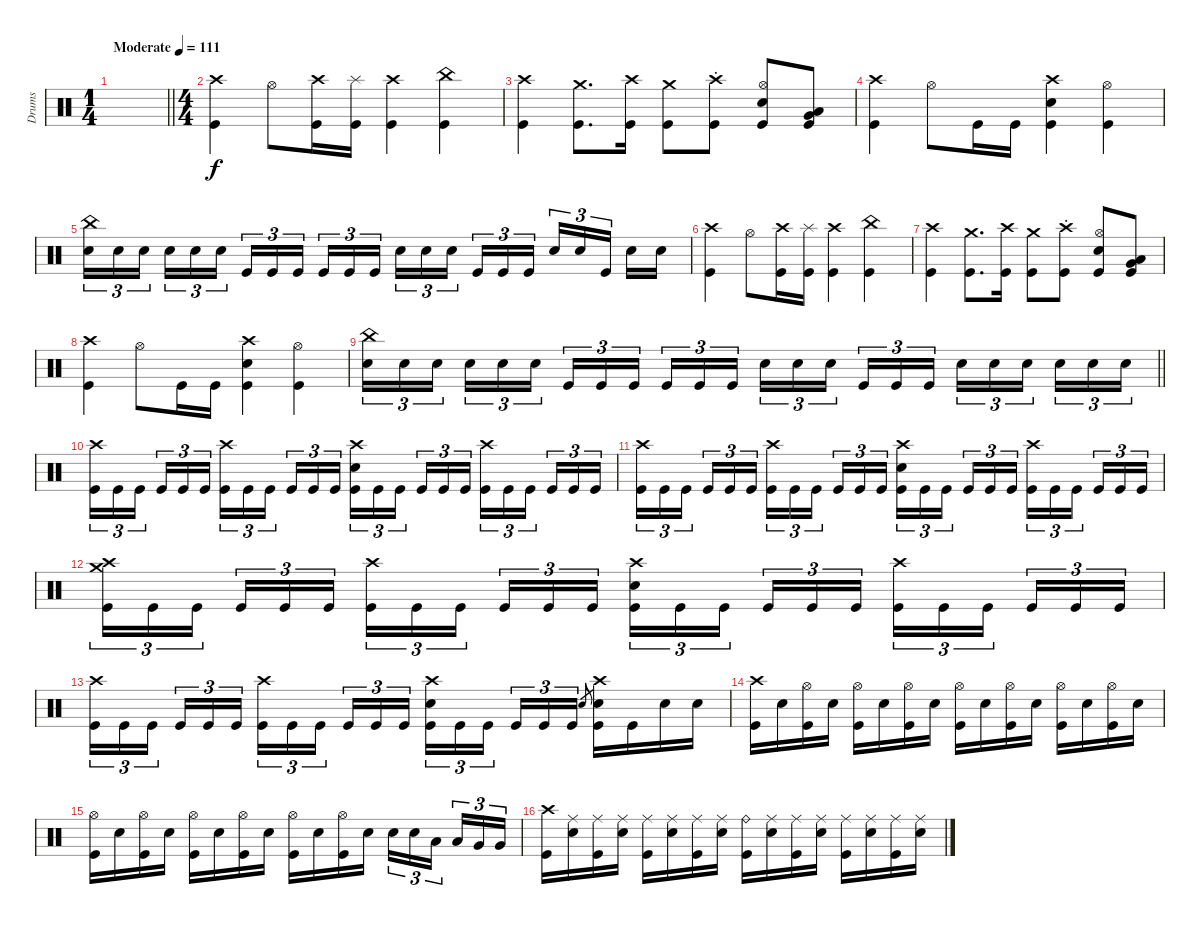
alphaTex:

\track ("Drums" "Drums") {instrument percussion}
\staff
\articulation defaults
\ts (1 4)
\tempo (111 "Moderate")
\clef neutral
\barLineRight lightlight
\ks c
|
\ts (4 4)
("Crash high (hit)" "Kick (hit)").4 "Hi-Hat (open)".8 ("Crash high (hit)" "Kick (hit)").16 ("Splash (hit)" "Kick (hit)").16 ("Crash high (hit)" "Kick (hit)").4 ("China (hit)" "Kick (hit)").4 |
("Crash high (hit)" "Kick (hit)").4 ("Crash medium (hit)" "Kick (hit)").8{d} ("Crash high (hit)" "Kick (hit)").16 ("Crash medium (hit)" "Kick (hit)").8 ("Crash high (hit)"{st} "Kick (hit)").8 ("Hi-Hat (open)" "Electric Snare (hit)" "Kick (hit)").8 ("Very Low Tom (hit)" "Low Floor Tom (hit)" "Kick (hit)").8 |
("Crash high (hit)" "Kick (hit)").4 "Hi-Hat (open)".8 "Kick (hit)".16 "Kick (hit)".16 ("Crash high (hit)" "Electric Snare (hit)" "Kick (hit)").4 ("Hi-Hat (open)" "Kick (hit)").4 |
("China (hit)" "Electric Snare (hit)").16{tu (3 2)} "Electric Snare (hit)".16{tu (3 2)} "Electric Snare (hit)".16{tu (3 2) beam splitsecondary} "Electric Snare (hit)".16{tu (3 2)} "Electric Snare (hit)".16{tu (3 2)} "Electric Snare (hit)".16{tu (3 2)} "Kick (hit)".16{tu (3 2)} "Kick (hit)".16{tu (3 2)} "Kick (hit)".16{tu (3 2) beam splitsecondary} "Kick (hit)".16{tu (3 2)} "Kick (hit)".16{tu (3 2)} "Kick (hit)".16{tu (3 2)} "Electric Snare (hit)".16{tu (3 2)} "Electric Snare (hit)".16{tu (3 2)} "Electric Snare (hit)".16{tu (3 2) beam splitsecondary} "Kick (hit)".16{tu (3 2)} "Kick (hit)".16{tu (3 2)} "Kick (hit)".16{tu (3 2)} "Electric Snare (hit)".16{tu (3 2)} "Electric Snare (hit)".16{tu (3 2)} "Kick (hit)".16{tu (3 2) beam splitsecondary} "Electric Snare (hit)".16 "Electric Snare (hit)".16 |
("Crash high (hit)" "Kick (hit)").4 "Hi-Hat (open)".8 ("Crash high (hit)" "Kick (hit)").16 ("Splash (hit)" "Kick (hit)").16 ("Crash high (hit)" "Kick (hit)").4 ("China (hit)" "Kick (hit)").4 |
("Crash high (hit)" "Kick (hit)").4 ("Crash medium (hit)" "Kick (hit)").8{d} ("Crash high (hit)" "Kick (hit)").16 ("Crash medium (hit)" "Kick (hit)").8 ("Crash high (hit)"{st} "Kick (hit)").8 ("Hi-Hat (open)" "Electric Snare (hit)" "Kick (hit)").8 ("Very Low Tom (hit)" "Low Floor Tom (hit)" "Kick (hit)").8 |
("Crash high (hit)" "Kick (hit)").4 "Hi-Hat (open)".8 "Kick (hit)".16 "Kick (hit)".16 ("Crash high (hit)" "Electric Snare (hit)" "Kick (hit)").4 ("Hi-Hat (open)" "Kick (hit)").4 |
\barLineRight lightlight
("China (hit)" "Electric Snare (hit)").16{tu (3 2)} "Electric Snare (hit)".16{tu (3 2)} "Electric Snare (hit)".16{tu (3 2) beam splitsecondary} "Electric Snare (hit)".16{tu (3 2)} "Electric Snare (hit)".16{tu (3 2)} "Electric Snare (hit)".16{tu (3 2)} "Kick (hit)".16{tu (3 2)} "Kick (hit)".16{tu (3 2)} "Kick (hit)".16{tu (3 2) beam splitsecondary} "Kick (hit)".16{tu (3 2)} "Kick (hit)".16{tu (3 2)} "Kick (hit)".16{tu (3 2)} "Electric Snare (hit)".16{tu (3 2)} "Electric Snare (hit)".16{tu (3 2)} "Electric Snare (hit)".16{tu (3 2) beam splitsecondary} "Kick (hit)".16{tu (3 2)} "Kick (hit)".16{tu (3 2)} "Kick (hit)".16{tu (3 2)} "Electric Snare (hit)".16{tu (3 2)} "Electric Snare (hit)".16{tu (3 2)} "Electric Snare (hit)".16{tu (3 2) beam splitsecondary} "Electric Snare (hit)".16{tu (3 2)} "Electric Snare (hit)".16{tu (3 2)} "Electric Snare (hit)".16{tu (3 2)} |
("Crash high (hit)" "Kick (hit)").16{tu (3 2)} "Kick (hit)".16{tu (3 2)} "Kick (hit)".16{tu (3 2) beam splitsecondary} "Kick (hit)".16{tu (3 2)} "Kick (hit)".16{tu (3 2)} "Kick (hit)".16{tu (3 2)} ("Crash high (hit)" "Kick (hit)").16{tu (3 2)} "Kick (hit)".16{tu (3 2)} "Kick (hit)".16{tu (3 2) beam splitsecondary} "Kick (hit)".16{tu (3 2)} "Kick (hit)".16{tu (3 2)} "Kick (hit)".16{tu (3 2)} ("Crash high (hit)" "Electric Snare (hit)" "Kick (hit)").16{tu (3 2)} "Kick (hit)".16{tu (3 2)} "Kick (hit)".16{tu (3 2) beam splitsecondary} "Kick (hit)".16{tu (3 2)} "Kick (hit)".16{tu (3 2)} "Kick (hit)".16{tu (3 2)} ("Crash high (hit)" "Kick (hit)").16{tu (3 2)} "Kick (hit)".16{tu (3 2)} "Kick (hit)".16{tu (3 2) beam splitsecondary} "Kick (hit)".16{tu (3 2)} "Kick (hit)".16{tu (3 2)} "Kick (hit)".16{tu (3 2)} |
("Crash high (hit)" "Kick (hit)").16{tu (3 2)} "Kick (hit)".16{tu (3 2)} "Kick (hit)".16{tu (3 2) beam splitsecondary} "Kick (hit)".16{tu (3 2)} "Kick (hit)".16{tu (3 2)} "Kick (hit)".16{tu (3 2)} ("Crash high (hit)" "Kick (hit)").16{tu (3 2)} "Kick (hit)".16{tu (3 2)} "Kick (hit)".16{tu (3 2) beam splitsecondary} "Kick (hit)".16{tu (3 2)} "Kick (hit)".16{tu (3 2)} "Kick (hit)".16{tu (3 2)} ("Crash high (hit)" "Electric Snare (hit)" "Kick (hit)").16{tu (3 2)} "Kick (hit)".16{tu (3 2)} "Kick (hit)".16{tu (3 2) beam splitsecondary} "Kick (hit)".16{tu (3 2)} "Kick (hit)".16{tu (3 2)} "Kick (hit)".16{tu (3 2)} ("Crash high (hit)" "Kick (hit)").16{tu (3 2)} "Kick (hit)".16{tu (3 2)} "Kick (hit)".16{tu (3 2) beam splitsecondary} "Kick (hit)".16{tu (3 2)} "Kick (hit)".16{tu (3 2)} "Kick (hit)".16{tu (3 2)} |
("Crash high (hit)" "Crash medium (hit)" "Kick (hit)").16{tu (3 2)} "Kick (hit)".16{tu (3 2)} "Kick (hit)".16{tu (3 2) beam splitsecondary} "Kick (hit)".16{tu (3 2)} "Kick (hit)".16{tu (3 2)} "Kick (hit)".16{tu (3 2)} ("Crash high (hit)" "Kick (hit)").16{tu (3 2)} "Kick (hit)".16{tu (3 2)} "Kick (hit)".16{tu (3 2) beam splitsecondary} "Kick (hit)".16{tu (3 2)} "Kick (hit)".16{tu (3 2)} "Kick (hit)".16{tu (3 2)} ("Crash high (hit)" "Electric Snare (hit)" "Kick (hit)").16{tu (3 2)} "Kick (hit)".16{tu (3 2)} "Kick (hit)".16{tu (3 2) beam splitsecondary} "Kick (hit)".16{tu (3 2)} "Kick (hit)".16{tu (3 2)} "Kick (hit)".16{tu (3 2)} ("Crash high (hit)" "Kick (hit)").16{tu (3 2)} "Kick (hit)".16{tu (3 2)} "Kick (hit)".16{tu (3 2) beam splitsecondary} "Kick (hit)".16{tu (3 2)} "Kick (hit)".16{tu (3 2)} "Kick (hit)".16{tu (3 2)} |
("Crash high (hit)" "Kick (hit)").16{tu (3 2)} "Kick (hit)".16{tu (3 2)} "Kick (hit)".16{tu (3 2) beam splitsecondary} "Kick (hit)".16{tu (3 2)} "Kick (hit)".16{tu (3 2)} "Kick (hit)".16{tu (3 2)} ("Crash high (hit)" "Kick (hit)").16{tu (3 2)} "Kick (hit)".16{tu (3 2)} "Kick (hit)".16{tu (3 2) beam splitsecondary} "Kick (hit)".16{tu (3 2)} "Kick (hit)".16{tu (3 2)} "Kick (hit)".16{tu (3 2)} ("Crash high (hit)" "Electric Snare (hit)" "Kick (hit)").16{tu (3 2)} "Kick (hit)".16{tu (3 2)} "Kick (hit)".16{tu (3 2) beam splitsecondary} "Kick (hit)".16{tu (3 2)} "Kick (hit)".16{tu (3 2)} "Kick (hit)".16{tu (3 2)} "Electric Snare (hit)".8{gr} ("Crash high (hit)" "Electric Snare (hit)" "Kick (hit)").16 "Kick (hit)".16 "Electric Snare (hit)".16 "Electric Snare (hit)".16 |
("Crash high (hit)" "Kick (hit)").16 "Electric Snare (hit)".16 ("Hi-Hat (open)" "Kick (hit)").16 "Electric Snare (hit)".16 ("Hi-Hat (open)" "Kick (hit)").16 "Electric Snare (hit)".16 ("Hi-Hat (open)" "Kick (hit)").16 "Electric Snare (hit)".16 ("Hi-Hat (open)" "Kick (hit)").16 "Electric Snare (hit)".16 ("Hi-Hat (open)" "Kick (hit)").16 "Electric Snare (hit)".16 ("Hi-Hat (open)" "Kick (hit)").16 "Electric Snare (hit)".16 ("Hi-Hat (open)" "Kick (hit)").16 "Electric Snare (hit)".16 |
("Hi-Hat (open)" "Kick (hit)").16 "Electric Snare (hit)".16 ("Hi-Hat (open)" "Kick (hit)").16 "Electric Snare (hit)".16 ("Hi-Hat (open)" "Kick (hit)").16 "Electric Snare (hit)".16 ("Hi-Hat (open)" "Kick (hit)").16 "Electric Snare (hit)".16 ("Hi-Hat (open)" "Kick (hit)").16 "Electric Snare (hit)".16 ("Hi-Hat (open)" "Kick (hit)").16 "Electric Snare (hit)".16 "Electric Snare (hit)".16{tu (3 2)} "Electric Snare (hit)".16{tu (3 2)} "Low Tom (hit)".16{tu (3 2) beam splitsecondary} "Low Tom (hit)".16{tu (3 2)} "Very Low Tom (hit)".16{tu (3 2)} "Very Low Tom (hit)".16{tu (3 2)} |
("Crash high (hit)" "Kick (hit)").16 ("Ride (middle)" "Electric Snare (hit)").16 ("Ride (middle)" "Kick (hit)").16 ("Ride (middle)" "Electric Snare (hit)").16 ("Ride (middle)" "Kick (hit)").16 ("Ride (middle)" "Electric Snare (hit)").16 ("Ride (middle)" "Kick (hit)").16 ("Ride (middle)" "Electric Snare (hit)").16 ("Ride (bell)" "Kick (hit)").16 ("Ride (middle)" "Electric Snare (hit)").16 ("Ride (middle)" "Kick (hit)").16 ("Ride (middle)" "Electric Snare (hit)").16 ("Ride (middle)" "Kick (hit)").16 ("Ride (middle)" "Electric Snare (hit)").16 ("Ride (middle)" "Kick (hit)").16 ("Ride (middle)" "Electric Snare (hit)").16
